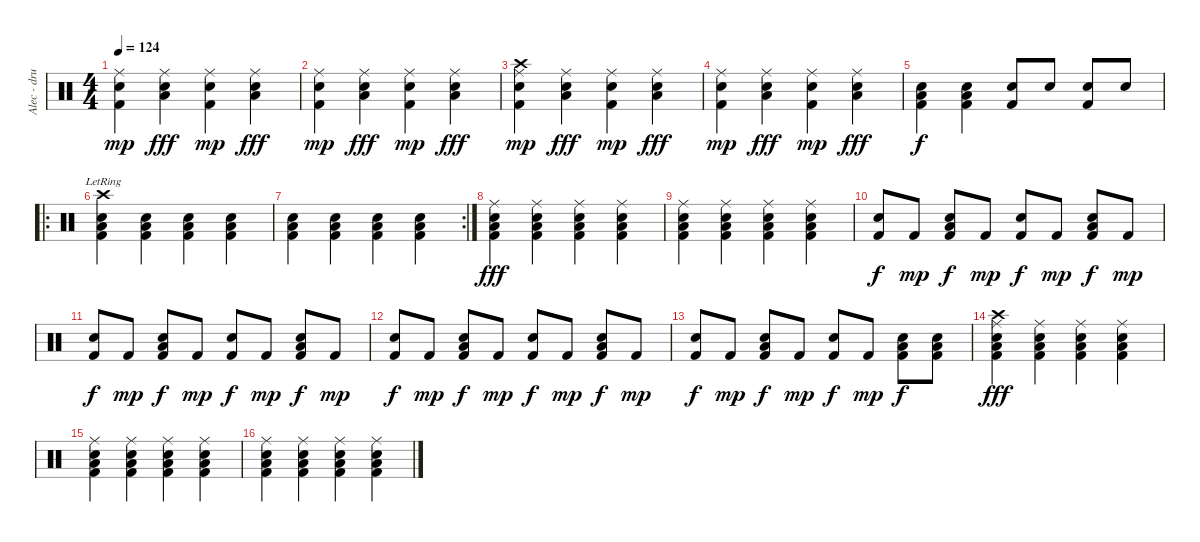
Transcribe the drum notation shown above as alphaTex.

\track ("Alec - drums" "Alec - dru") {instrument percussion}
\staff {score}
\articulation defaults
\ts (4 4)
\tempo 124
\clef neutral
\ks c
("Ride (middle)" "Snare (hit) 2" "Kick (hit) 2").4{dy mp} ("Ride (middle)" "Low Tom (hit)" "Snare (hit) 2").4{dy fff} ("Ride (middle)" "Snare (hit) 2" "Kick (hit) 2").4{dy mp} ("Ride (middle)" "Low Tom (hit)" "Snare (hit) 2").4{dy fff} |
("Ride (middle)" "Snare (hit) 2" "Kick (hit) 2").4{dy mp} ("Ride (middle)" "Low Tom (hit)" "Snare (hit) 2").4{dy fff} ("Ride (middle)" "Snare (hit) 2" "Kick (hit) 2").4{dy mp} ("Ride (middle)" "Low Tom (hit)" "Snare (hit) 2").4{dy fff} |
("Crash high (hit)" "Ride (middle)" "Snare (hit) 2" "Kick (hit) 2").4{dy mp} ("Ride (middle)" "Low Tom (hit)" "Snare (hit) 2").4{dy fff} ("Ride (middle)" "Snare (hit) 2" "Kick (hit) 2").4{dy mp} ("Ride (middle)" "Low Tom (hit)" "Snare (hit) 2").4{dy fff} |
("Ride (middle)" "Snare (hit) 2" "Kick (hit) 2").4{dy mp} ("Ride (middle)" "Low Tom (hit)" "Snare (hit) 2").4{dy fff} ("Ride (middle)" "Snare (hit) 2" "Kick (hit) 2").4{dy mp} ("Ride (middle)" "Low Tom (hit)" "Snare (hit) 2").4{dy fff} |
("Kick (hit) 2" "Snare (hit) 2" "Low Tom (hit)").4{dy f} ("Kick (hit) 2" "Snare (hit) 2" "Low Tom (hit)").4 ("Kick (hit) 2" "Snare (hit) 2").8 "Snare (hit) 2".8 ("Kick (hit) 2" "Snare (hit) 2").8 "Snare (hit) 2".8 |
\ro
("Crash high (hit)"{lr} "Kick (hit) 2" "Snare (hit) 2" "Low Tom (hit)").4 ("Kick (hit) 2" "Snare (hit) 2" "Low Tom (hit)").4 ("Kick (hit) 2" "Snare (hit) 2" "Low Tom (hit)").4 ("Kick (hit) 2" "Snare (hit) 2" "Low Tom (hit)").4 |
\rc 2
("Kick (hit) 2" "Snare (hit) 2" "Low Tom (hit)").4 ("Kick (hit) 2" "Snare (hit) 2" "Low Tom (hit)").4 ("Kick (hit) 2" "Snare (hit) 2" "Low Tom (hit)").4 ("Kick (hit) 2" "Snare (hit) 2" "Low Tom (hit)").4 |
("Ride (middle)" "Kick (hit) 2" "Snare (hit) 2" "Low Tom (hit)").4{dy fff} ("Ride (middle)" "Kick (hit) 2" "Snare (hit) 2" "Low Tom (hit)").4 ("Ride (middle)" "Kick (hit) 2" "Snare (hit) 2" "Low Tom (hit)").4 ("Ride (middle)" "Kick (hit) 2" "Snare (hit) 2" "Low Tom (hit)").4 |
("Ride (middle)" "Kick (hit) 2" "Snare (hit) 2" "Low Tom (hit)").4 ("Ride (middle)" "Kick (hit) 2" "Snare (hit) 2" "Low Tom (hit)").4 ("Ride (middle)" "Kick (hit) 2" "Snare (hit) 2" "Low Tom (hit)").4 ("Ride (middle)" "Kick (hit) 2" "Snare (hit) 2" "Low Tom (hit)").4 |
("Kick (hit) 2" "Snare (hit) 2").8{dy f} "Kick (hit) 2".8{dy mp} ("Kick (hit) 2" "Snare (hit) 2" "Low Tom (hit)").8{dy f} "Kick (hit) 2".8{dy mp} ("Kick (hit) 2" "Snare (hit) 2").8{dy f} "Kick (hit) 2".8{dy mp} ("Kick (hit) 2" "Snare (hit) 2" "Low Tom (hit)").8{dy f} "Kick (hit) 2".8{dy mp} |
("Kick (hit) 2" "Snare (hit) 2").8{dy f} "Kick (hit) 2".8{dy mp} ("Kick (hit) 2" "Snare (hit) 2" "Low Tom (hit)").8{dy f} "Kick (hit) 2".8{dy mp} ("Kick (hit) 2" "Snare (hit) 2").8{dy f} "Kick (hit) 2".8{dy mp} ("Kick (hit) 2" "Snare (hit) 2" "Low Tom (hit)").8{dy f} "Kick (hit) 2".8{dy mp} |
("Kick (hit) 2" "Snare (hit) 2").8{dy f} "Kick (hit) 2".8{dy mp} ("Kick (hit) 2" "Snare (hit) 2" "Low Tom (hit)").8{dy f} "Kick (hit) 2".8{dy mp} ("Kick (hit) 2" "Snare (hit) 2").8{dy f} "Kick (hit) 2".8{dy mp} ("Kick (hit) 2" "Snare (hit) 2" "Low Tom (hit)").8{dy f} "Kick (hit) 2".8{dy mp} |
("Kick (hit) 2" "Snare (hit) 2").8{dy f} "Kick (hit) 2".8{dy mp} ("Kick (hit) 2" "Snare (hit) 2" "Low Tom (hit)").8{dy f} "Kick (hit) 2".8{dy mp} ("Kick (hit) 2" "Snare (hit) 2").8{dy f} "Kick (hit) 2".8{dy mp} ("Kick (hit) 2" "Snare (hit) 2" "Low Tom (hit)").8{dy f} ("Kick (hit) 2" "Snare (hit) 2" "Low Tom (hit)").8 |
("Crash high (hit)" "Ride (middle)" "Kick (hit) 2" "Snare (hit) 2" "Low Tom (hit)").4{dy fff} ("Ride (middle)" "Kick (hit) 2" "Snare (hit) 2" "Low Tom (hit)").4 ("Ride (middle)" "Kick (hit) 2" "Snare (hit) 2" "Low Tom (hit)").4 ("Ride (middle)" "Kick (hit) 2" "Snare (hit) 2" "Low Tom (hit)").4 |
("Ride (middle)" "Kick (hit) 2" "Snare (hit) 2" "Low Tom (hit)").4 ("Ride (middle)" "Kick (hit) 2" "Snare (hit) 2" "Low Tom (hit)").4 ("Ride (middle)" "Kick (hit) 2" "Snare (hit) 2" "Low Tom (hit)").4 ("Ride (middle)" "Kick (hit) 2" "Snare (hit) 2" "Low Tom (hit)").4 |
("Ride (middle)" "Kick (hit) 2" "Snare (hit) 2" "Low Tom (hit)").4 ("Ride (middle)" "Kick (hit) 2" "Snare (hit) 2" "Low Tom (hit)").4 ("Ride (middle)" "Kick (hit) 2" "Snare (hit) 2" "Low Tom (hit)").4 ("Ride (middle)" "Kick (hit) 2" "Snare (hit) 2" "Low Tom (hit)").4
